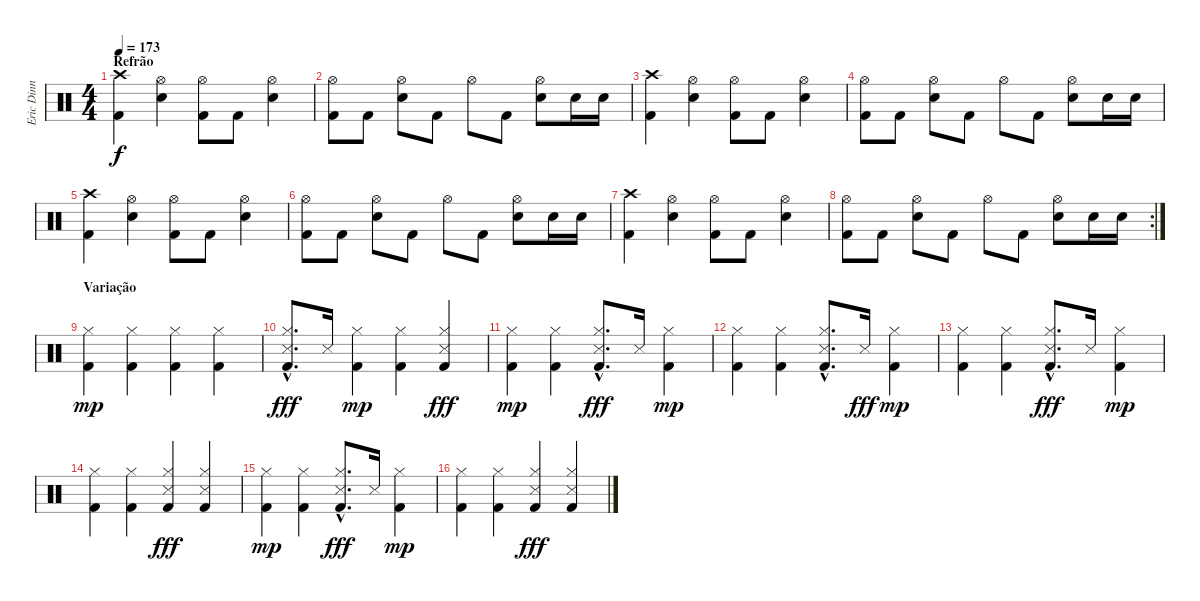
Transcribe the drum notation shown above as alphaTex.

\track ("Eric Dinn" "Eric Dinn") {instrument percussion}
\staff {score}
\articulation defaults
\ts (4 4)
\section ("" "Refrão")
\tempo 173
\clef neutral
\ks c
("Crash high (hit)" "Kick (hit) 2").4{dy f} ("Hi-Hat (open)" "Snare (hit) 2").4 ("Hi-Hat (open)" "Kick (hit) 2").8 "Kick (hit) 2".8 ("Hi-Hat (open)" "Snare (hit) 2").4 |
("Hi-Hat (open)" "Kick (hit) 2").8 "Kick (hit) 2".8 ("Hi-Hat (open)" "Snare (hit) 2").8 "Kick (hit) 2".8 "Hi-Hat (open)".8 "Kick (hit) 2".8 ("Hi-Hat (open)" "Snare (hit) 2").8 "Snare (hit) 2".16 "Snare (hit) 2".16 |
("Crash high (hit)" "Kick (hit) 2").4 ("Hi-Hat (open)" "Snare (hit) 2").4 ("Hi-Hat (open)" "Kick (hit) 2").8 "Kick (hit) 2".8 ("Hi-Hat (open)" "Snare (hit) 2").4 |
("Hi-Hat (open)" "Kick (hit) 2").8 "Kick (hit) 2".8 ("Hi-Hat (open)" "Snare (hit) 2").8 "Kick (hit) 2".8 "Hi-Hat (open)".8 "Kick (hit) 2".8 ("Hi-Hat (open)" "Snare (hit) 2").8 "Snare (hit) 2".16 "Snare (hit) 2".16 |
("Crash high (hit)" "Kick (hit) 2").4 ("Hi-Hat (open)" "Snare (hit) 2").4 ("Hi-Hat (open)" "Kick (hit) 2").8 "Kick (hit) 2".8 ("Hi-Hat (open)" "Snare (hit) 2").4 |
("Hi-Hat (open)" "Kick (hit) 2").8 "Kick (hit) 2".8 ("Hi-Hat (open)" "Snare (hit) 2").8 "Kick (hit) 2".8 "Hi-Hat (open)".8 "Kick (hit) 2".8 ("Hi-Hat (open)" "Snare (hit) 2").8 "Snare (hit) 2".16 "Snare (hit) 2".16 |
("Crash high (hit)" "Kick (hit) 2").4 ("Hi-Hat (open)" "Snare (hit) 2").4 ("Hi-Hat (open)" "Kick (hit) 2").8 "Kick (hit) 2".8 ("Hi-Hat (open)" "Snare (hit) 2").4 |
\rc 2
("Hi-Hat (open)" "Kick (hit) 2").8 "Kick (hit) 2".8 ("Hi-Hat (open)" "Snare (hit) 2").8 "Kick (hit) 2".8 "Hi-Hat (open)".8 "Kick (hit) 2".8 ("Hi-Hat (open)" "Snare (hit) 2").8 "Snare (hit) 2".16 "Snare (hit) 2".16 |
\section ("" "Variação")
("Hi-Hat (closed)" "Kick (hit) 2").4{dy mp} ("Hi-Hat (closed)" "Kick (hit) 2").4 ("Hi-Hat (closed)" "Kick (hit) 2").4 ("Hi-Hat (closed)" "Kick (hit) 2").4 |
("Hi-Hat (closed)"{hac} "Snare (side stick) 3"{hac} "Kick (hit) 2"{hac}).8{d dy fff} "Snare (side stick) 3".16 ("Hi-Hat (closed)" "Kick (hit) 2").4{dy mp} ("Hi-Hat (closed)" "Kick (hit) 2").4 ("Hi-Hat (closed)" "Snare (side stick) 3" "Kick (hit) 2").4{dy fff} |
("Hi-Hat (closed)" "Kick (hit) 2").4{dy mp} ("Hi-Hat (closed)" "Kick (hit) 2").4 ("Hi-Hat (closed)"{hac} "Snare (side stick) 3"{hac} "Kick (hit) 2"{hac}).8{d dy fff} "Snare (side stick) 3".16 ("Hi-Hat (closed)" "Kick (hit) 2").4{dy mp} |
("Hi-Hat (closed)" "Kick (hit) 2").4 ("Hi-Hat (closed)" "Kick (hit) 2").4 ("Hi-Hat (closed)"{hac} "Snare (side stick) 3"{hac} "Kick (hit) 2"{hac}).8{d} "Snare (side stick) 3".16{dy fff} ("Hi-Hat (closed)" "Kick (hit) 2").4{dy mp} |
("Hi-Hat (closed)" "Kick (hit) 2").4 ("Hi-Hat (closed)" "Kick (hit) 2").4 ("Hi-Hat (closed)"{hac} "Snare (side stick) 3"{hac} "Kick (hit) 2"{hac}).8{d dy fff} "Snare (side stick) 3".16 ("Hi-Hat (closed)" "Kick (hit) 2").4{dy mp} |
("Hi-Hat (closed)" "Kick (hit) 2").4 ("Hi-Hat (closed)" "Kick (hit) 2").4 ("Hi-Hat (closed)" "Snare (side stick) 3" "Kick (hit) 2").4{dy fff} ("Hi-Hat (closed)" "Snare (side stick) 3" "Kick (hit) 2").4 |
("Hi-Hat (closed)" "Kick (hit) 2").4{dy mp} ("Hi-Hat (closed)" "Kick (hit) 2").4 ("Hi-Hat (closed)"{hac} "Snare (side stick) 3"{hac} "Kick (hit) 2"{hac}).8{d dy fff} "Snare (side stick) 3".16 ("Hi-Hat (closed)" "Kick (hit) 2").4{dy mp} |
("Hi-Hat (closed)" "Kick (hit) 2").4 ("Hi-Hat (closed)" "Kick (hit) 2").4 ("Hi-Hat (closed)" "Snare (side stick) 3" "Kick (hit) 2").4{dy fff} ("Hi-Hat (closed)" "Snare (side stick) 3" "Kick (hit) 2").4
